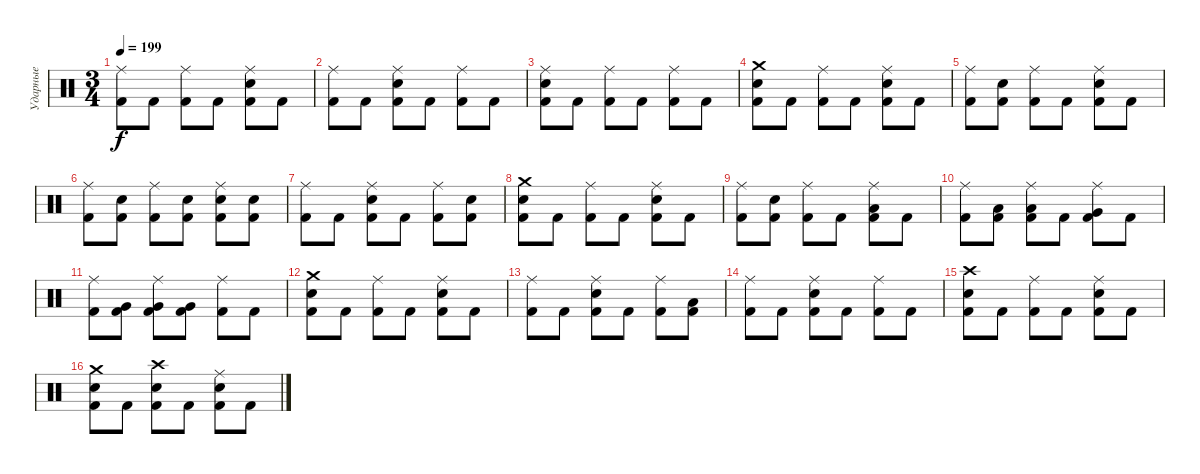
\track ("Ударные" "Ударные") {instrument percussion}
\staff {score}
\articulation defaults
\ts (3 4)
\tempo 199
\clef neutral
\ks c
("Ride (middle)" "Kick (hit) 2").8{dy f} "Kick (hit) 2".8 ("Ride (middle)" "Kick (hit) 2").8 "Kick (hit) 2".8 ("Ride (middle)" "Snare (hit) 2" "Kick (hit) 2").8 "Kick (hit) 2".8 |
("Ride (middle)" "Kick (hit) 2").8 "Kick (hit) 2".8 ("Ride (middle)" "Snare (hit) 2" "Kick (hit) 2").8 "Kick (hit) 2".8 ("Ride (middle)" "Kick (hit) 2").8 "Kick (hit) 2".8 |
("Ride (middle)" "Snare (hit) 2" "Kick (hit) 2").8 "Kick (hit) 2".8 ("Ride (middle)" "Kick (hit) 2").8 "Kick (hit) 2".8 ("Ride (middle)" "Kick (hit) 2").8 "Kick (hit) 2".8 |
("Crash medium (hit)" "Snare (hit) 2" "Kick (hit) 2").8 "Kick (hit) 2".8 ("Ride (middle)" "Kick (hit) 2").8 "Kick (hit) 2".8 ("Ride (middle)" "Snare (hit) 2" "Kick (hit) 2").8 "Kick (hit) 2".8 |
("Ride (middle)" "Kick (hit) 2").8 ("Snare (hit) 2" "Kick (hit) 2").8 ("Ride (middle)" "Kick (hit) 2").8 "Kick (hit) 2".8 ("Ride (middle)" "Snare (hit) 2" "Kick (hit) 2").8 "Kick (hit) 2".8 |
("Ride (middle)" "Kick (hit) 2").8 ("Snare (hit) 2" "Kick (hit) 2").8 ("Ride (middle)" "Kick (hit) 2").8 ("Snare (hit) 2" "Kick (hit) 2").8 ("Ride (middle)" "Snare (hit) 2" "Kick (hit) 2").8 ("Snare (hit) 2" "Kick (hit) 2").8 |
("Ride (middle)" "Kick (hit) 2").8 "Kick (hit) 2".8 ("Ride (middle)" "Snare (hit) 2" "Kick (hit) 2").8 "Kick (hit) 2".8 ("Ride (middle)" "Kick (hit) 2").8 ("Snare (hit) 2" "Kick (hit) 2").8 |
("Crash medium (hit)" "Snare (hit) 2" "Kick (hit) 2").8 "Kick (hit) 2".8 ("Ride (middle)" "Kick (hit) 2").8 "Kick (hit) 2".8 ("Ride (middle)" "Snare (hit) 2" "Kick (hit) 2").8 "Kick (hit) 2".8 |
("Ride (middle)" "Kick (hit) 2").8 ("Snare (hit) 2" "Kick (hit) 2").8 ("Ride (middle)" "Kick (hit) 2").8 "Kick (hit) 2".8 ("Ride (middle)" "Low Tom (hit)" "Kick (hit) 2").8 "Kick (hit) 2".8 |
("Ride (middle)" "Kick (hit) 2").8 ("Low Tom (hit)" "Kick (hit) 2").8 ("Ride (middle)" "Low Tom (hit)" "Kick (hit) 2").8 "Kick (hit) 2".8 ("Ride (middle)" "Very Low Tom (hit)" "Kick (hit) 2").8 "Kick (hit) 2".8 |
("Ride (middle)" "Kick (hit) 2").8 ("Very Low Tom (hit)" "Kick (hit) 2").8 ("Ride (middle)" "Very Low Tom (hit)" "Kick (hit) 2").8 ("Very Low Tom (hit)" "Kick (hit) 2").8 ("Ride (middle)" "Kick (hit) 2").8 "Kick (hit) 2".8 |
("Crash medium (hit)" "Snare (hit) 2" "Kick (hit) 2").8 "Kick (hit) 2".8 ("Ride (middle)" "Kick (hit) 2").8 "Kick (hit) 2".8 ("Ride (middle)" "Snare (hit) 2" "Kick (hit) 2").8 "Kick (hit) 2".8 |
("Ride (middle)" "Kick (hit) 2").8 "Kick (hit) 2".8 ("Ride (middle)" "Snare (hit) 2" "Kick (hit) 2").8 "Kick (hit) 2".8 ("Ride (middle)" "Kick (hit) 2").8 ("Low Tom (hit)" "Kick (hit) 2").8 |
("Ride (middle)" "Kick (hit) 2").8 "Kick (hit) 2".8 ("Ride (middle)" "Snare (hit) 2" "Kick (hit) 2").8 "Kick (hit) 2".8 ("Ride (middle)" "Kick (hit) 2").8 "Kick (hit) 2".8 |
("Crash high (hit)" "Snare (hit) 2" "Kick (hit) 2").8 "Kick (hit) 2".8 ("Ride (middle)" "Kick (hit) 2").8 "Kick (hit) 2".8 ("Ride (middle)" "Snare (hit) 2" "Kick (hit) 2").8 "Kick (hit) 2".8 |
("Crash medium (hit)" "Snare (hit) 2" "Kick (hit) 2").8 "Kick (hit) 2".8 ("Crash high (hit)" "Snare (hit) 2" "Kick (hit) 2").8 "Kick (hit) 2".8 ("Ride (middle)" "Snare (hit) 2" "Kick (hit) 2").8 "Kick (hit) 2".8
